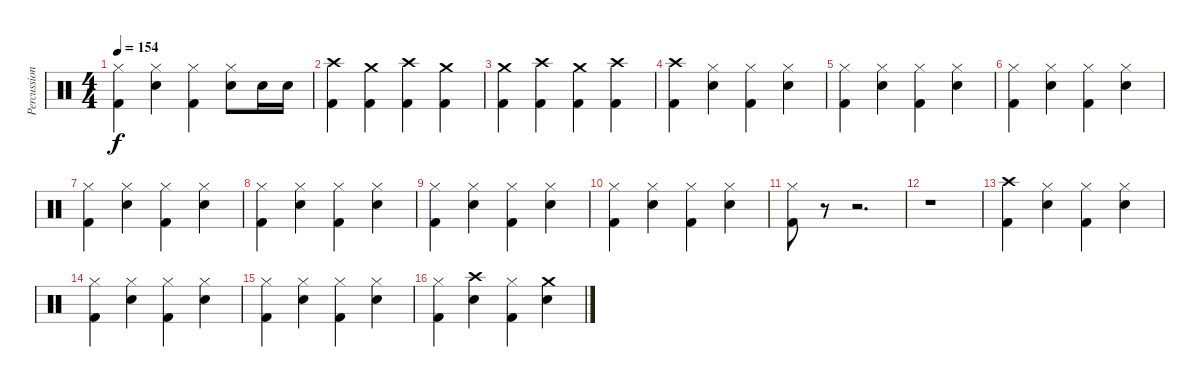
\track ("Percussion" "Percussion") {instrument percussion}
\staff {score}
\articulation defaults
\ts (4 4)
\tempo 154
\clef neutral
\ks c
("Hi-Hat (closed)" "Kick (hit) 2").4{dy f} ("Hi-Hat (closed)" "Snare (hit) 2").4 ("Hi-Hat (closed)" "Kick (hit) 2").4 ("Hi-Hat (closed)" "Snare (hit) 2").8 "Snare (hit) 2".16 "Snare (hit) 2".16 |
("Crash high (hit)" "Kick (hit) 2").4 ("Crash medium (hit)" "Kick (hit) 2").4 ("Crash high (hit)" "Kick (hit) 2").4 ("Crash medium (hit)" "Kick (hit) 2").4 |
("Crash medium (hit)" "Kick (hit) 2").4 ("Crash high (hit)" "Kick (hit) 2").4 ("Crash medium (hit)" "Kick (hit) 2").4 ("Crash high (hit)" "Kick (hit) 2").4 |
("Crash high (hit)" "Kick (hit) 2").4 ("Hi-Hat (closed)" "Snare (hit) 2").4 ("Hi-Hat (closed)" "Kick (hit) 2").4 ("Hi-Hat (closed)" "Snare (hit) 2").4 |
("Hi-Hat (closed)" "Kick (hit) 2").4 ("Hi-Hat (closed)" "Snare (hit) 2").4 ("Hi-Hat (closed)" "Kick (hit) 2").4 ("Hi-Hat (closed)" "Snare (hit) 2").4 |
("Hi-Hat (closed)" "Kick (hit) 2").4 ("Hi-Hat (closed)" "Snare (hit) 2").4 ("Hi-Hat (closed)" "Kick (hit) 2").4 ("Hi-Hat (closed)" "Snare (hit) 2").4 |
("Hi-Hat (closed)" "Kick (hit) 2").4 ("Hi-Hat (closed)" "Snare (hit) 2").4 ("Hi-Hat (closed)" "Kick (hit) 2").4 ("Hi-Hat (closed)" "Snare (hit) 2").4 |
("Hi-Hat (closed)" "Kick (hit) 2").4 ("Hi-Hat (closed)" "Snare (hit) 2").4 ("Hi-Hat (closed)" "Kick (hit) 2").4 ("Hi-Hat (closed)" "Snare (hit) 2").4 |
("Hi-Hat (closed)" "Kick (hit) 2").4 ("Hi-Hat (closed)" "Snare (hit) 2").4 ("Hi-Hat (closed)" "Kick (hit) 2").4 ("Hi-Hat (closed)" "Snare (hit) 2").4 |
("Hi-Hat (closed)" "Kick (hit) 2").4 ("Hi-Hat (closed)" "Snare (hit) 2").4 ("Hi-Hat (closed)" "Kick (hit) 2").4 ("Hi-Hat (closed)" "Snare (hit) 2").4 |
("Hi-Hat (closed)" "Kick (hit) 2").8 r.8 r.2{d} |
r.1 |
("Crash high (hit)" "Kick (hit) 2").4 ("Hi-Hat (closed)" "Snare (hit) 2").4 ("Hi-Hat (closed)" "Kick (hit) 2").4 ("Hi-Hat (closed)" "Snare (hit) 2").4 |
("Hi-Hat (closed)" "Kick (hit) 2").4 ("Hi-Hat (closed)" "Snare (hit) 2").4 ("Hi-Hat (closed)" "Kick (hit) 2").4 ("Hi-Hat (closed)" "Snare (hit) 2").4 |
("Hi-Hat (closed)" "Kick (hit) 2").4 ("Hi-Hat (closed)" "Snare (hit) 2").4 ("Hi-Hat (closed)" "Kick (hit) 2").4 ("Hi-Hat (closed)" "Snare (hit) 2").4 |
("Hi-Hat (closed)" "Kick (hit) 2").4 ("Crash high (hit)" "Snare (hit) 2").4 ("Hi-Hat (closed)" "Kick (hit) 2").4 ("Crash medium (hit)" "Snare (hit) 2").4
